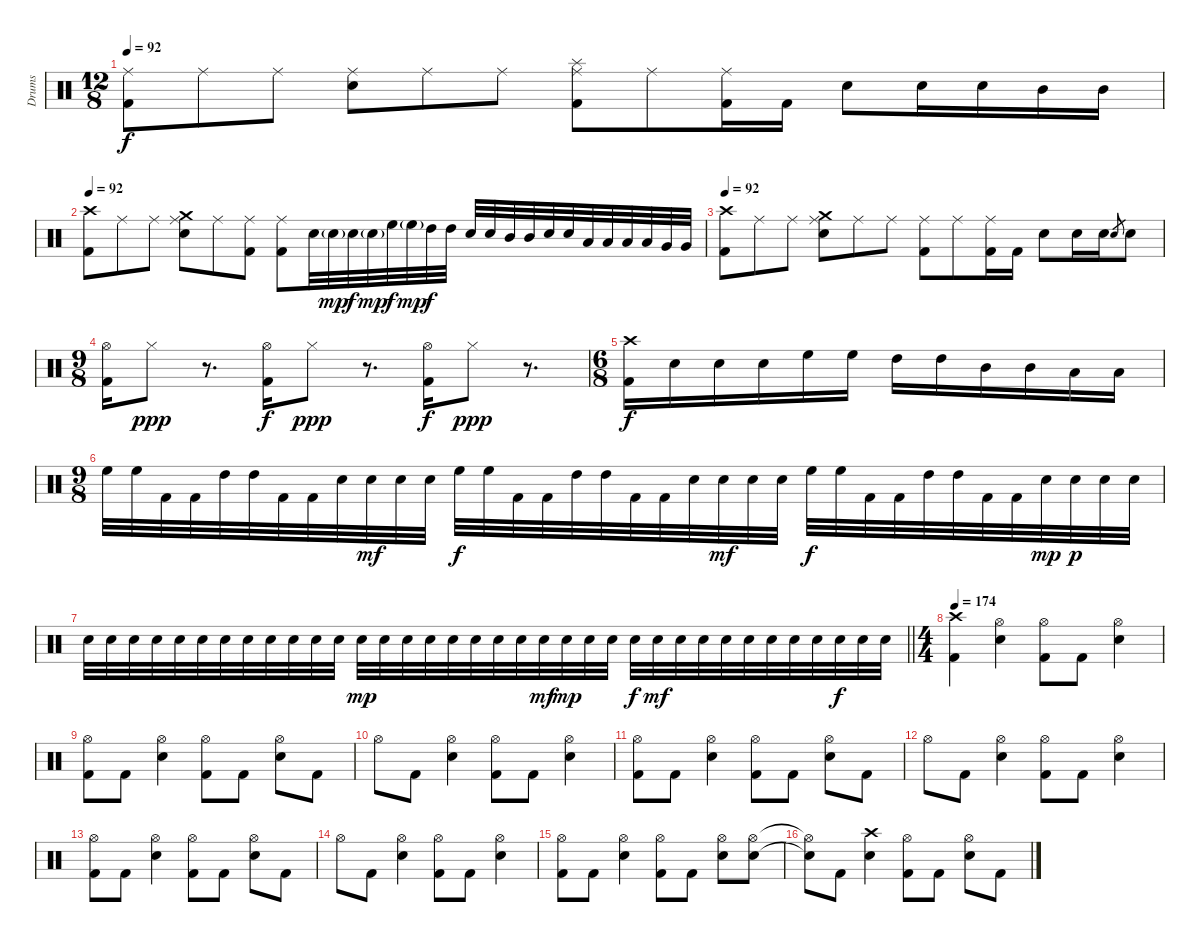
\track ("Drums" "Drums") {instrument percussion}
\staff {score}
\articulation defaults
\ts (12 8)
\tempo 92
\clef neutral
\ks c
("Ride (middle)" "Kick (hit) 2").8{dy f} "Ride (middle)".8 "Ride (middle)".8 ("Ride (middle)" "Electric Snare (hit)").8 "Ride (middle)".8 "Ride (middle)".8 ("Splash (hit)" "Ride (middle)" "Kick (hit) 2").8 "Ride (middle)".8 ("Ride (middle)" "Kick (hit) 2").16 "Kick (hit) 2".16 "Electric Snare (hit)".8 "Electric Snare (hit)".16 "Electric Snare (hit)".16 "Mid Tom (hit)".16 "Mid Tom (hit)".16 |
\tempo 92
("Crash high (hit)" "Kick (hit) 2").8 "Ride (middle)".8 "Ride (middle)".8 ("Crash medium (hit)" "Ride (middle)" "Electric Snare (hit)").8 "Ride (middle)".8 ("Ride (middle)" "Kick (hit) 2").8 ("Ride (middle)" "Kick (hit) 2").8 "Electric Snare (hit)".32 "Electric Snare (hit)"{g}.32{dy mp} "Electric Snare (hit)".32{dy f} "Electric Snare (hit)"{g}.32{dy mp} "High Floor Tom (hit)".32{dy f} "High Floor Tom (hit)"{g}.32{dy mp} "High Tom (hit)".32{dy f} "High Tom (hit)".32 "Electric Snare (hit)".32 "Electric Snare (hit)".32 "Mid Tom (hit)".32 "Mid Tom (hit)".32 "Electric Snare (hit)".32 "Electric Snare (hit)".32 "Low Tom (hit)".32 "Low Tom (hit)".32 "Low Tom (hit)".32 "Low Tom (hit)".32 "Very Low Tom (hit)".32 "Very Low Tom (hit)".32 |
\tempo 92
("Crash high (hit)" "Kick (hit) 2").8 "Ride (middle)".8 "Ride (middle)".8 ("Crash medium (hit)" "Ride (middle)" "Electric Snare (hit)").8 "Ride (middle)".8 "Ride (middle)".8 ("Ride (middle)" "Kick (hit) 2").8 "Ride (middle)".8 ("Ride (middle)" "Kick (hit) 2").16 "Kick (hit) 2".16 "Electric Snare (hit)".8 "Electric Snare (hit)".16 "Electric Snare (hit)".16 "Electric Snare (hit)".8{gr} "Electric Snare (hit)".8 |
\ts (9 8)
("Hi-Hat (open)" "Kick (hit) 2").16 "Hi-Hat (closed)".8{dy ppp} r.8{d} ("Hi-Hat (open)" "Kick (hit) 2").16{dy f} "Hi-Hat (closed)".8{dy ppp} r.8{d} ("Hi-Hat (open)" "Kick (hit) 2").16{dy f} "Hi-Hat (closed)".8{dy ppp} r.8{d} |
\ts (6 8)
("Crash high (hit)" "Kick (hit) 2").16{dy f} "Electric Snare (hit)".16 "Electric Snare (hit)".16 "Electric Snare (hit)".16 "High Floor Tom (hit)".16 "High Floor Tom (hit)".16 "High Tom (hit)".16 "High Tom (hit)".16 "Mid Tom (hit)".16 "Mid Tom (hit)".16 "Low Tom (hit)".16 "Low Tom (hit)".16 |
\ts (9 8)
"High Floor Tom (hit)".32 "High Floor Tom (hit)".32 "Kick (hit) 2".32 "Kick (hit) 2".32 "High Tom (hit)".32 "High Tom (hit)".32 "Kick (hit) 2".32 "Kick (hit) 2".32 "Electric Snare (hit)".32 "Electric Snare (hit)".32{dy mf} "Electric Snare (hit)".32 "Electric Snare (hit)".32 "High Floor Tom (hit)".32{dy f} "High Floor Tom (hit)".32 "Kick (hit) 2".32 "Kick (hit) 2".32 "High Tom (hit)".32 "High Tom (hit)".32 "Kick (hit) 2".32 "Kick (hit) 2".32 "Electric Snare (hit)".32 "Electric Snare (hit)".32{dy mf} "Electric Snare (hit)".32 "Electric Snare (hit)".32 "High Floor Tom (hit)".32{dy f} "High Floor Tom (hit)".32 "Kick (hit) 2".32 "Kick (hit) 2".32 "High Tom (hit)".32 "High Tom (hit)".32 "Kick (hit) 2".32 "Kick (hit) 2".32 "Electric Snare (hit)".32{dy mp} "Electric Snare (hit)".32{dy p} "Electric Snare (hit)".32 "Electric Snare (hit)".32 |
\barLineRight lightlight "Electric Snare (hit)".32 "Electric Snare (hit)".32 "Electric Snare (hit)".32 "Electric Snare (hit)".32 "Electric Snare (hit)".32 "Electric Snare (hit)".32 "Electric Snare (hit)".32 "Electric Snare (hit)".32 "Electric Snare (hit)".32 "Electric Snare (hit)".32 "Electric Snare (hit)".32 "Electric Snare (hit)".32 "Electric Snare (hit)".32{dy mp} "Electric Snare (hit)".32 "Electric Snare (hit)".32 "Electric Snare (hit)".32 "Electric Snare (hit)".32 "Electric Snare (hit)".32 "Electric Snare (hit)".32 "Electric Snare (hit)".32 "Electric Snare (hit)".32{dy mf} "Electric Snare (hit)".32{dy mp} "Electric Snare (hit)".32 "Electric Snare (hit)".32 "Electric Snare (hit)".32{dy f} "Electric Snare (hit)".32{dy mf} "Electric Snare (hit)".32 "Electric Snare (hit)".32 "Electric Snare (hit)".32 "Electric Snare (hit)".32 "Electric Snare (hit)".32 "Electric Snare (hit)".32 "Electric Snare (hit)".32 "Electric Snare (hit)".32{dy f} "Electric Snare (hit)".32 "Electric Snare (hit)".32
|
\ts (4 4)
\tempo 174
("Crash high (hit)" "Kick (hit) 2").4 ("Hi-Hat (open)" "Electric Snare (hit)").4 ("Hi-Hat (open)" "Kick (hit) 2").8 "Kick (hit) 2".8 ("Hi-Hat (open)" "Electric Snare (hit)").4 |
("Hi-Hat (open)" "Kick (hit) 2").8 "Kick (hit) 2".8 ("Hi-Hat (open)" "Electric Snare (hit)").4 ("Hi-Hat (open)" "Kick (hit) 2").8 "Kick (hit) 2".8 ("Hi-Hat (open)" "Electric Snare (hit)").8 "Kick (hit) 2".8 |
"Hi-Hat (open)".8 "Kick (hit) 2".8 ("Hi-Hat (open)" "Electric Snare (hit)").4 ("Hi-Hat (open)" "Kick (hit) 2").8 "Kick (hit) 2".8 ("Hi-Hat (open)" "Electric Snare (hit)").4 |
("Hi-Hat (open)" "Kick (hit) 2").8 "Kick (hit) 2".8 ("Hi-Hat (open)" "Electric Snare (hit)").4 ("Hi-Hat (open)" "Kick (hit) 2").8 "Kick (hit) 2".8 ("Hi-Hat (open)" "Electric Snare (hit)").8 "Kick (hit) 2".8 |
"Hi-Hat (open)".8 "Kick (hit) 2".8 ("Hi-Hat (open)" "Electric Snare (hit)").4 ("Hi-Hat (open)" "Kick (hit) 2").8 "Kick (hit) 2".8 ("Hi-Hat (open)" "Electric Snare (hit)").4 |
("Hi-Hat (open)" "Kick (hit) 2").8 "Kick (hit) 2".8 ("Hi-Hat (open)" "Electric Snare (hit)").4 ("Hi-Hat (open)" "Kick (hit) 2").8 "Kick (hit) 2".8 ("Hi-Hat (open)" "Electric Snare (hit)").8 "Kick (hit) 2".8 |
"Hi-Hat (open)".8 "Kick (hit) 2".8 ("Hi-Hat (open)" "Electric Snare (hit)").4 ("Hi-Hat (open)" "Kick (hit) 2").8 "Kick (hit) 2".8 ("Hi-Hat (open)" "Electric Snare (hit)").4 |
("Hi-Hat (open)" "Kick (hit) 2").8 "Kick (hit) 2".8 ("Hi-Hat (open)" "Electric Snare (hit)").4 ("Hi-Hat (open)" "Kick (hit) 2").8 "Kick (hit) 2".8 ("Hi-Hat (open)" "Electric Snare (hit)").8 ("Hi-Hat (open)" "Electric Snare (hit)").8 |
("Hi-Hat (open)"{t} "Electric Snare (hit)"{t}).8 "Kick (hit) 2".8 ("Crash high (hit)" "Electric Snare (hit)").4 ("Hi-Hat (open)" "Kick (hit) 2").8 "Kick (hit) 2".8 ("Hi-Hat (open)" "Electric Snare (hit)").8 "Kick (hit) 2".8
